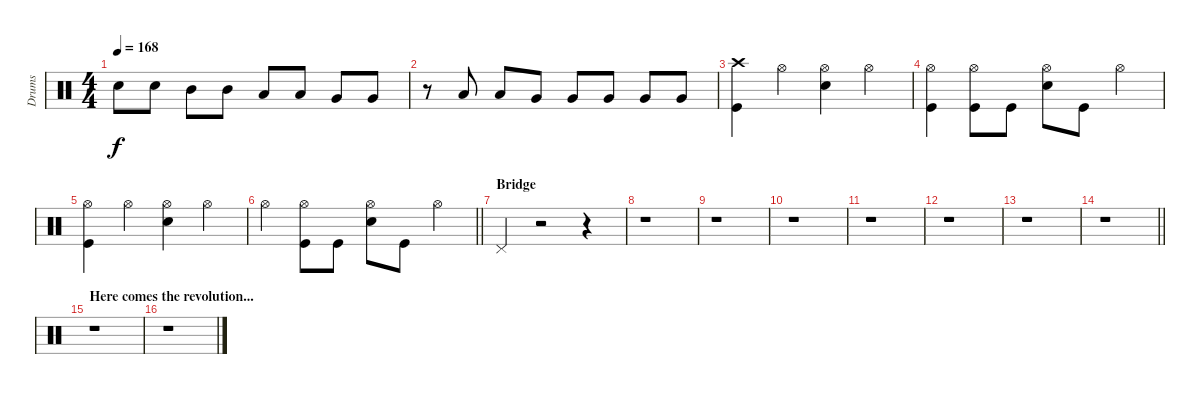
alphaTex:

\track ("Drums" "Drums") {instrument percussion}
\staff {score}
\articulation defaults
\ts (4 4)
\tempo 168
\clef neutral
\ks c "Electric Snare (hit)".8{dy f} "Electric Snare (hit)".8 "Mid Tom (hit)".8 "Mid Tom (hit)".8 "Low Tom (hit)".8 "Low Tom (hit)".8 "Very Low Tom (hit)".8 "Very Low Tom (hit)".8
|
r.8 "Low Tom (hit)".8 "Low Tom (hit)".8 "Very Low Tom (hit)".8 "Very Low Tom (hit)".8 "Very Low Tom (hit)".8 "Very Low Tom (hit)".8 "Very Low Tom (hit)".8 |
("Crash high (hit)" "Kick (hit)").4 "Hi-Hat (open)".4 ("Hi-Hat (open)" "Electric Snare (hit)").4 "Hi-Hat (open)".4 |
("Hi-Hat (open)" "Kick (hit)").4 ("Hi-Hat (open)" "Kick (hit)").8 "Kick (hit)".8 ("Hi-Hat (open)" "Electric Snare (hit)").8 "Kick (hit)".8 "Hi-Hat (open)".4 |
("Hi-Hat (open)" "Kick (hit)").4 "Hi-Hat (open)".4 ("Hi-Hat (open)" "Electric Snare (hit)").4 "Hi-Hat (open)".4 |
\barLineRight lightlight "Hi-Hat (open)".4
("Hi-Hat (open)" "Kick (hit)").8 "Kick (hit)".8 ("Hi-Hat (open)" "Electric Snare (hit)").8 "Kick (hit)".8 "Hi-Hat (open)".4 |
\section ("" "Bridge")
"Pedal Hi-Hat (hit)".4 r.2 r.4 |
r.1 |
r.1 |
r.1 |
r.1 |
r.1 |
r.1 |
\barLineRight lightlight
r.1 |
\section ("" "Here comes the revolution...")
r.1 |
r.1
